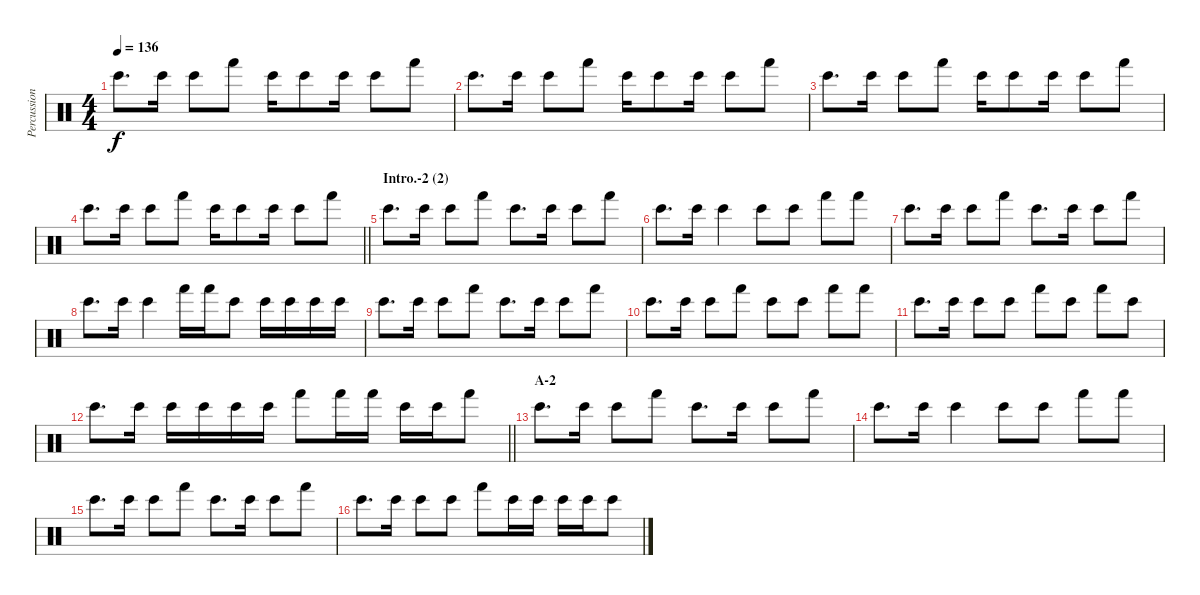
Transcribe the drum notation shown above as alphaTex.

\track ("Percussion" "Percussion") {instrument percussion}
\staff {score}
\articulation defaults
\ts (4 4)
\tempo 136
\clef neutral
\ks c "Bongo High (hit)".8{d dy f} "Bongo High (hit)".16 "Bongo High (hit)".8 "Hand (hit)".8 "Bongo High (hit)".16 "Bongo High (hit)".8 "Bongo High (hit)".16 "Bongo High (hit)".8 "Hand (hit)".8
|
"Bongo High (hit)".8{d} "Bongo High (hit)".16 "Bongo High (hit)".8 "Hand (hit)".8 "Bongo High (hit)".16 "Bongo High (hit)".8 "Bongo High (hit)".16 "Bongo High (hit)".8 "Hand (hit)".8 |
"Bongo High (hit)".8{d} "Bongo High (hit)".16 "Bongo High (hit)".8 "Hand (hit)".8 "Bongo High (hit)".16 "Bongo High (hit)".8 "Bongo High (hit)".16 "Bongo High (hit)".8 "Hand (hit)".8 |
\barLineRight lightlight "Bongo High (hit)".8{d} "Bongo High (hit)".16 "Bongo High (hit)".8 "Hand (hit)".8 "Bongo High (hit)".16 "Bongo High (hit)".8 "Bongo High (hit)".16 "Bongo High (hit)".8 "Hand (hit)".8
|
\section ("" "Intro.-2 (2)")
"Bongo High (hit)".8{d} "Bongo High (hit)".16 "Bongo High (hit)".8 "Hand (hit)".8 "Bongo High (hit)".8{d} "Bongo High (hit)".16 "Bongo High (hit)".8 "Hand (hit)".8 |
"Bongo High (hit)".8{d} "Bongo High (hit)".16 "Bongo High (hit)".4 "Bongo High (hit)".8 "Bongo High (hit)".8 "Hand (hit)".8 "Hand (hit)".8 |
"Bongo High (hit)".8{d} "Bongo High (hit)".16 "Bongo High (hit)".8 "Hand (hit)".8 "Bongo High (hit)".8{d} "Bongo High (hit)".16 "Bongo High (hit)".8 "Hand (hit)".8 |
"Bongo High (hit)".8{d} "Bongo High (hit)".16 "Bongo High (hit)".4 "Hand (hit)".16 "Hand (hit)".16 "Bongo High (hit)".8 "Bongo High (hit)".16 "Bongo High (hit)".16 "Bongo High (hit)".16 "Bongo High (hit)".16 |
"Bongo High (hit)".8{d} "Bongo High (hit)".16 "Bongo High (hit)".8 "Hand (hit)".8 "Bongo High (hit)".8{d} "Bongo High (hit)".16 "Bongo High (hit)".8 "Hand (hit)".8 |
"Bongo High (hit)".8{d} "Bongo High (hit)".16 "Bongo High (hit)".8 "Hand (hit)".8 "Bongo High (hit)".8 "Bongo High (hit)".8 "Hand (hit)".8 "Hand (hit)".8 |
"Bongo High (hit)".8{d} "Bongo High (hit)".16 "Bongo High (hit)".8 "Bongo High (hit)".8 "Hand (hit)".8 "Bongo High (hit)".8 "Hand (hit)".8 "Bongo High (hit)".8 |
\barLineRight lightlight "Bongo High (hit)".8{d} "Bongo High (hit)".16 "Bongo High (hit)".16 "Bongo High (hit)".16 "Bongo High (hit)".16 "Bongo High (hit)".16 "Hand (hit)".8 "Hand (hit)".16 "Hand (hit)".16 "Bongo High (hit)".16 "Bongo High (hit)".16 "Hand (hit)".8
|
\section ("" "A-2")
"Bongo High (hit)".8{d} "Bongo High (hit)".16 "Bongo High (hit)".8 "Hand (hit)".8 "Bongo High (hit)".8{d} "Bongo High (hit)".16 "Bongo High (hit)".8 "Hand (hit)".8 |
"Bongo High (hit)".8{d} "Bongo High (hit)".16 "Bongo High (hit)".4 "Bongo High (hit)".8 "Bongo High (hit)".8 "Hand (hit)".8 "Hand (hit)".8 |
"Bongo High (hit)".8{d} "Bongo High (hit)".16 "Bongo High (hit)".8 "Hand (hit)".8 "Bongo High (hit)".8{d} "Bongo High (hit)".16 "Bongo High (hit)".8 "Hand (hit)".8 |
"Bongo High (hit)".8{d} "Bongo High (hit)".16 "Bongo High (hit)".8 "Bongo High (hit)".8 "Hand (hit)".8 "Bongo High (hit)".16 "Bongo High (hit)".16 "Bongo High (hit)".16 "Bongo High (hit)".16 "Bongo High (hit)".8
